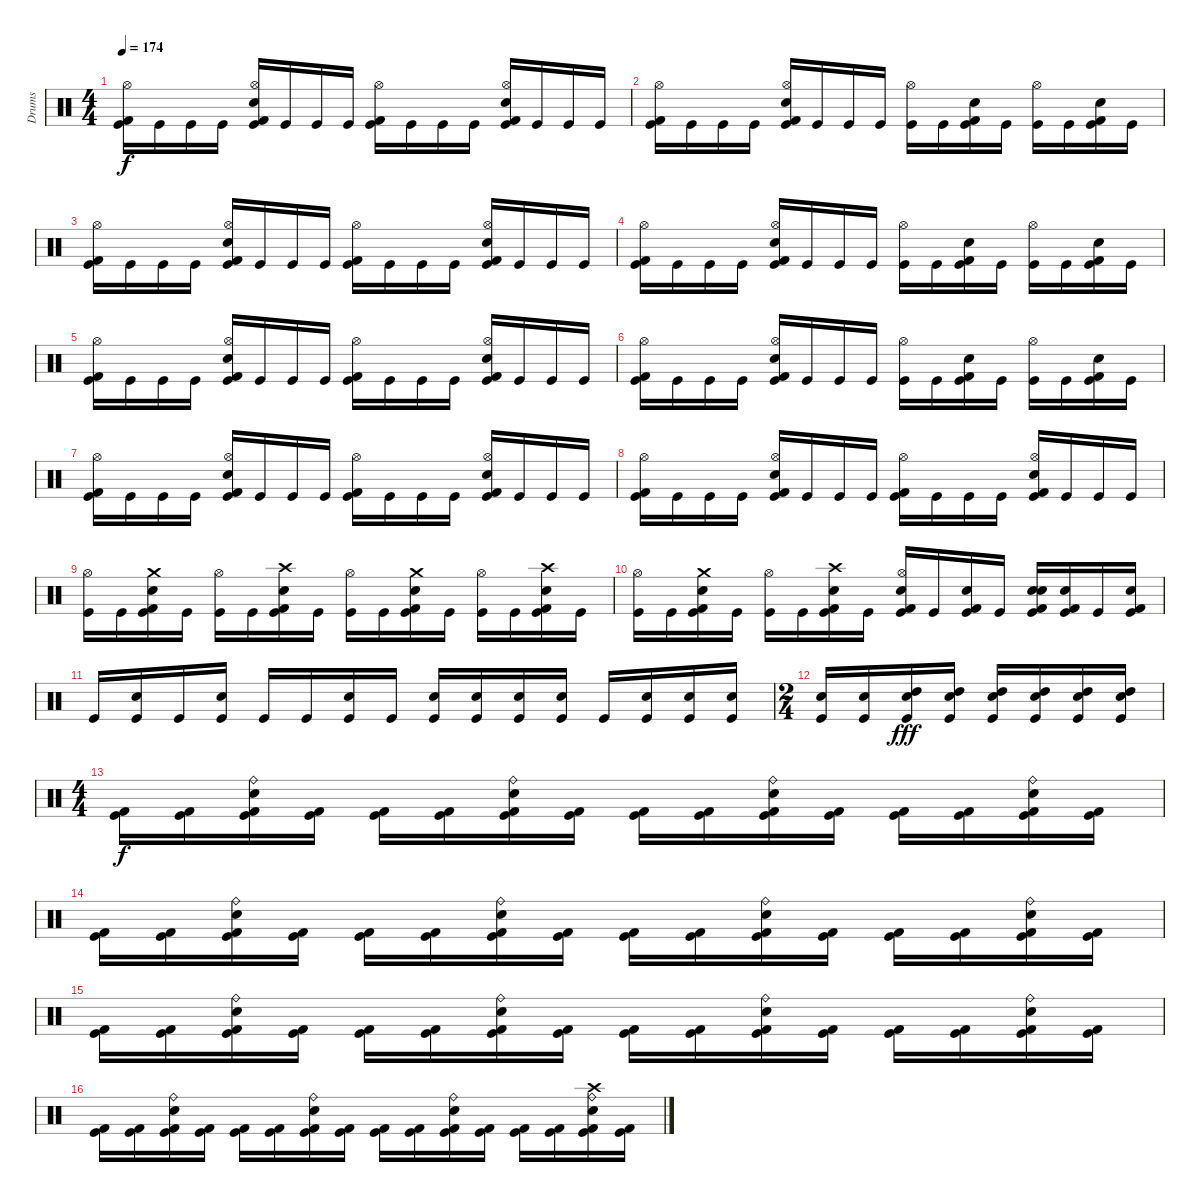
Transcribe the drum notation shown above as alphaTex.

\track ("Drums" "Drums") {instrument percussion}
\staff {score}
\articulation defaults
\ts (4 4)
\tempo 174
\clef neutral
\ks c
("Kick (hit)" "Kick (hit) 2" "Hi-Hat (open)").16{dy f} "Kick (hit)".16 "Kick (hit)".16 "Kick (hit)".16 ("Kick (hit)" "Kick (hit) 2" "Electric Snare (hit)" "Hi-Hat (open)").16 "Kick (hit)".16 "Kick (hit)".16 "Kick (hit)".16 ("Kick (hit)" "Kick (hit) 2" "Hi-Hat (open)").16 "Kick (hit)".16 "Kick (hit)".16 "Kick (hit)".16 ("Kick (hit)" "Kick (hit) 2" "Electric Snare (hit)" "Hi-Hat (open)").16 "Kick (hit)".16 "Kick (hit)".16 "Kick (hit)".16 |
("Kick (hit)" "Kick (hit) 2" "Hi-Hat (open)").16 "Kick (hit)".16 "Kick (hit)".16 "Kick (hit)".16 ("Kick (hit)" "Kick (hit) 2" "Electric Snare (hit)" "Hi-Hat (open)").16 "Kick (hit)".16 "Kick (hit)".16 "Kick (hit)".16 ("Kick (hit)" "Hi-Hat (open)").16 "Kick (hit)".16 ("Kick (hit)" "Kick (hit) 2" "Electric Snare (hit)").16 "Kick (hit)".16 ("Kick (hit)" "Hi-Hat (open)").16 "Kick (hit)".16 ("Kick (hit)" "Kick (hit) 2" "Electric Snare (hit)").16 "Kick (hit)".16 |
("Kick (hit)" "Kick (hit) 2" "Hi-Hat (open)").16 "Kick (hit)".16 "Kick (hit)".16 "Kick (hit)".16 ("Kick (hit)" "Kick (hit) 2" "Electric Snare (hit)" "Hi-Hat (open)").16 "Kick (hit)".16 "Kick (hit)".16 "Kick (hit)".16 ("Kick (hit)" "Kick (hit) 2" "Hi-Hat (open)").16 "Kick (hit)".16 "Kick (hit)".16 "Kick (hit)".16 ("Kick (hit)" "Kick (hit) 2" "Electric Snare (hit)" "Hi-Hat (open)").16 "Kick (hit)".16 "Kick (hit)".16 "Kick (hit)".16 |
("Kick (hit)" "Kick (hit) 2" "Hi-Hat (open)").16 "Kick (hit)".16 "Kick (hit)".16 "Kick (hit)".16 ("Kick (hit)" "Kick (hit) 2" "Electric Snare (hit)" "Hi-Hat (open)").16 "Kick (hit)".16 "Kick (hit)".16 "Kick (hit)".16 ("Kick (hit)" "Hi-Hat (open)").16 "Kick (hit)".16 ("Kick (hit)" "Kick (hit) 2" "Electric Snare (hit)").16 "Kick (hit)".16 ("Kick (hit)" "Hi-Hat (open)").16 "Kick (hit)".16 ("Kick (hit)" "Kick (hit) 2" "Electric Snare (hit)").16 "Kick (hit)".16 |
("Kick (hit)" "Kick (hit) 2" "Hi-Hat (open)").16 "Kick (hit)".16 "Kick (hit)".16 "Kick (hit)".16 ("Kick (hit)" "Kick (hit) 2" "Electric Snare (hit)" "Hi-Hat (open)").16 "Kick (hit)".16 "Kick (hit)".16 "Kick (hit)".16 ("Kick (hit)" "Kick (hit) 2" "Hi-Hat (open)").16 "Kick (hit)".16 "Kick (hit)".16 "Kick (hit)".16 ("Kick (hit)" "Kick (hit) 2" "Electric Snare (hit)" "Hi-Hat (open)").16 "Kick (hit)".16 "Kick (hit)".16 "Kick (hit)".16 |
("Kick (hit)" "Kick (hit) 2" "Hi-Hat (open)").16 "Kick (hit)".16 "Kick (hit)".16 "Kick (hit)".16 ("Kick (hit)" "Kick (hit) 2" "Electric Snare (hit)" "Hi-Hat (open)").16 "Kick (hit)".16 "Kick (hit)".16 "Kick (hit)".16 ("Kick (hit)" "Hi-Hat (open)").16 "Kick (hit)".16 ("Kick (hit)" "Kick (hit) 2" "Electric Snare (hit)").16 "Kick (hit)".16 ("Kick (hit)" "Hi-Hat (open)").16 "Kick (hit)".16 ("Kick (hit)" "Kick (hit) 2" "Electric Snare (hit)").16 "Kick (hit)".16 |
("Kick (hit)" "Kick (hit) 2" "Hi-Hat (open)").16 "Kick (hit)".16 "Kick (hit)".16 "Kick (hit)".16 ("Kick (hit)" "Kick (hit) 2" "Electric Snare (hit)" "Hi-Hat (open)").16 "Kick (hit)".16 "Kick (hit)".16 "Kick (hit)".16 ("Kick (hit)" "Kick (hit) 2" "Hi-Hat (open)").16 "Kick (hit)".16 "Kick (hit)".16 "Kick (hit)".16 ("Kick (hit)" "Kick (hit) 2" "Electric Snare (hit)" "Hi-Hat (open)").16 "Kick (hit)".16 "Kick (hit)".16 "Kick (hit)".16 |
("Kick (hit)" "Kick (hit) 2" "Hi-Hat (open)").16 "Kick (hit)".16 "Kick (hit)".16 "Kick (hit)".16 ("Kick (hit)" "Kick (hit) 2" "Electric Snare (hit)" "Hi-Hat (open)").16 "Kick (hit)".16 "Kick (hit)".16 "Kick (hit)".16 ("Kick (hit)" "Kick (hit) 2" "Hi-Hat (open)").16 "Kick (hit)".16 "Kick (hit)".16 "Kick (hit)".16 ("Kick (hit)" "Kick (hit) 2" "Electric Snare (hit)" "Hi-Hat (open)").16 "Kick (hit)".16 "Kick (hit)".16 "Kick (hit)".16 |
("Kick (hit)" "Hi-Hat (open)").16 "Kick (hit)".16 ("Kick (hit)" "Kick (hit) 2" "Electric Snare (hit)" "Crash medium (hit)").16 "Kick (hit)".16 ("Kick (hit)" "Hi-Hat (open)").16 "Kick (hit)".16 ("Kick (hit)" "Kick (hit) 2" "Electric Snare (hit)" "Crash high (hit)").16 "Kick (hit)".16 ("Kick (hit)" "Hi-Hat (open)").16 "Kick (hit)".16 ("Kick (hit)" "Kick (hit) 2" "Electric Snare (hit)" "Crash medium (hit)").16 "Kick (hit)".16 ("Kick (hit)" "Hi-Hat (open)").16 "Kick (hit)".16 ("Kick (hit)" "Kick (hit) 2" "Electric Snare (hit)" "Crash high (hit)").16 "Kick (hit)".16 |
("Kick (hit)" "Hi-Hat (open)").16 "Kick (hit)".16 ("Kick (hit)" "Kick (hit) 2" "Electric Snare (hit)" "Crash medium (hit)").16 "Kick (hit)".16 ("Kick (hit)" "Hi-Hat (open)").16 "Kick (hit)".16 ("Kick (hit)" "Kick (hit) 2" "Electric Snare (hit)" "Crash high (hit)").16 "Kick (hit)".16 ("Kick (hit)" "Kick (hit) 2" "Electric Snare (hit)" "Hi-Hat (open)").16 "Kick (hit)".16 ("Kick (hit)" "Kick (hit) 2" "Electric Snare (hit)").16 "Kick (hit)".16 ("Kick (hit)" "Kick (hit) 2" "Electric Snare (hit)" "Electric Snare (hit)").16 ("Kick (hit)" "Kick (hit) 2" "Electric Snare (hit)").16 "Kick (hit)".16 ("Kick (hit)" "Kick (hit) 2" "Electric Snare (hit)").16 |
"Kick (hit)".16 ("Kick (hit)" "Electric Snare (hit)").16 "Kick (hit)".16 ("Kick (hit)" "Electric Snare (hit)").16 "Kick (hit)".16 "Kick (hit)".16 ("Kick (hit)" "Electric Snare (hit)").16 "Kick (hit)".16 ("Kick (hit)" "Electric Snare (hit)").16 ("Kick (hit)" "Electric Snare (hit)").16 ("Kick (hit)" "Electric Snare (hit)").16 ("Kick (hit)" "Electric Snare (hit)").16 "Kick (hit)".16 ("Kick (hit)" "Electric Snare (hit)").16 ("Kick (hit)" "Electric Snare (hit)").16 ("Kick (hit)" "Electric Snare (hit)").16 |
\ts (2 4)
("Kick (hit)" "Electric Snare (hit)").16 ("Kick (hit)" "Electric Snare (hit)").16 ("Kick (hit)" "Electric Snare (hit)" "High Tom (hit)").16{dy fff} ("Kick (hit)" "Electric Snare (hit)" "High Tom (hit)").16 ("Kick (hit)" "Electric Snare (hit)" "High Tom (hit)").16 ("Kick (hit)" "Electric Snare (hit)" "High Tom (hit)").16 ("Kick (hit)" "Electric Snare (hit)" "High Tom (hit)").16 ("Kick (hit)" "Electric Snare (hit)" "High Tom (hit)").16 |
\ts (4 4)
("Kick (hit)" "Kick (hit) 2").16{dy f} ("Kick (hit)" "Kick (hit) 2").16 ("Kick (hit)" "Kick (hit) 2" "Electric Snare (hit)" "Ride (bell)").16 ("Kick (hit)" "Kick (hit) 2").16 ("Kick (hit)" "Kick (hit) 2").16 ("Kick (hit)" "Kick (hit) 2").16 ("Kick (hit)" "Kick (hit) 2" "Electric Snare (hit)" "Ride (bell)").16 ("Kick (hit)" "Kick (hit) 2").16 ("Kick (hit)" "Kick (hit) 2").16 ("Kick (hit)" "Kick (hit) 2").16 ("Kick (hit)" "Kick (hit) 2" "Electric Snare (hit)" "Ride (bell)").16 ("Kick (hit)" "Kick (hit) 2").16 ("Kick (hit)" "Kick (hit) 2").16 ("Kick (hit)" "Kick (hit) 2").16 ("Kick (hit)" "Kick (hit) 2" "Electric Snare (hit)" "Ride (bell)").16 ("Kick (hit)" "Kick (hit) 2").16 |
("Kick (hit)" "Kick (hit) 2").16 ("Kick (hit)" "Kick (hit) 2").16 ("Kick (hit)" "Kick (hit) 2" "Electric Snare (hit)" "Ride (bell)").16 ("Kick (hit)" "Kick (hit) 2").16 ("Kick (hit)" "Kick (hit) 2").16 ("Kick (hit)" "Kick (hit) 2").16 ("Kick (hit)" "Kick (hit) 2" "Electric Snare (hit)" "Ride (bell)").16 ("Kick (hit)" "Kick (hit) 2").16 ("Kick (hit)" "Kick (hit) 2").16 ("Kick (hit)" "Kick (hit) 2").16 ("Kick (hit)" "Kick (hit) 2" "Electric Snare (hit)" "Ride (bell)").16 ("Kick (hit)" "Kick (hit) 2").16 ("Kick (hit)" "Kick (hit) 2").16 ("Kick (hit)" "Kick (hit) 2").16 ("Kick (hit)" "Kick (hit) 2" "Electric Snare (hit)" "Ride (bell)").16 ("Kick (hit)" "Kick (hit) 2").16 |
("Kick (hit)" "Kick (hit) 2").16 ("Kick (hit)" "Kick (hit) 2").16 ("Kick (hit)" "Kick (hit) 2" "Electric Snare (hit)" "Ride (bell)").16 ("Kick (hit)" "Kick (hit) 2").16 ("Kick (hit)" "Kick (hit) 2").16 ("Kick (hit)" "Kick (hit) 2").16 ("Kick (hit)" "Kick (hit) 2" "Electric Snare (hit)" "Ride (bell)").16 ("Kick (hit)" "Kick (hit) 2").16 ("Kick (hit)" "Kick (hit) 2").16 ("Kick (hit)" "Kick (hit) 2").16 ("Kick (hit)" "Kick (hit) 2" "Electric Snare (hit)" "Ride (bell)").16 ("Kick (hit)" "Kick (hit) 2").16 ("Kick (hit)" "Kick (hit) 2").16 ("Kick (hit)" "Kick (hit) 2").16 ("Kick (hit)" "Kick (hit) 2" "Electric Snare (hit)" "Ride (bell)").16 ("Kick (hit)" "Kick (hit) 2").16 |
("Kick (hit)" "Kick (hit) 2").16 ("Kick (hit)" "Kick (hit) 2").16 ("Kick (hit)" "Kick (hit) 2" "Electric Snare (hit)" "Ride (bell)").16 ("Kick (hit)" "Kick (hit) 2").16 ("Kick (hit)" "Kick (hit) 2").16 ("Kick (hit)" "Kick (hit) 2").16 ("Kick (hit)" "Kick (hit) 2" "Electric Snare (hit)" "Ride (bell)").16 ("Kick (hit)" "Kick (hit) 2").16 ("Kick (hit)" "Kick (hit) 2").16 ("Kick (hit)" "Kick (hit) 2").16 ("Kick (hit)" "Kick (hit) 2" "Electric Snare (hit)" "Ride (bell)").16 ("Kick (hit)" "Kick (hit) 2").16 ("Kick (hit)" "Kick (hit) 2").16 ("Kick (hit)" "Kick (hit) 2").16 ("Kick (hit)" "Kick (hit) 2" "Electric Snare (hit)" "Ride (bell)" "Crash high (hit)").16 ("Kick (hit)" "Kick (hit) 2").16
